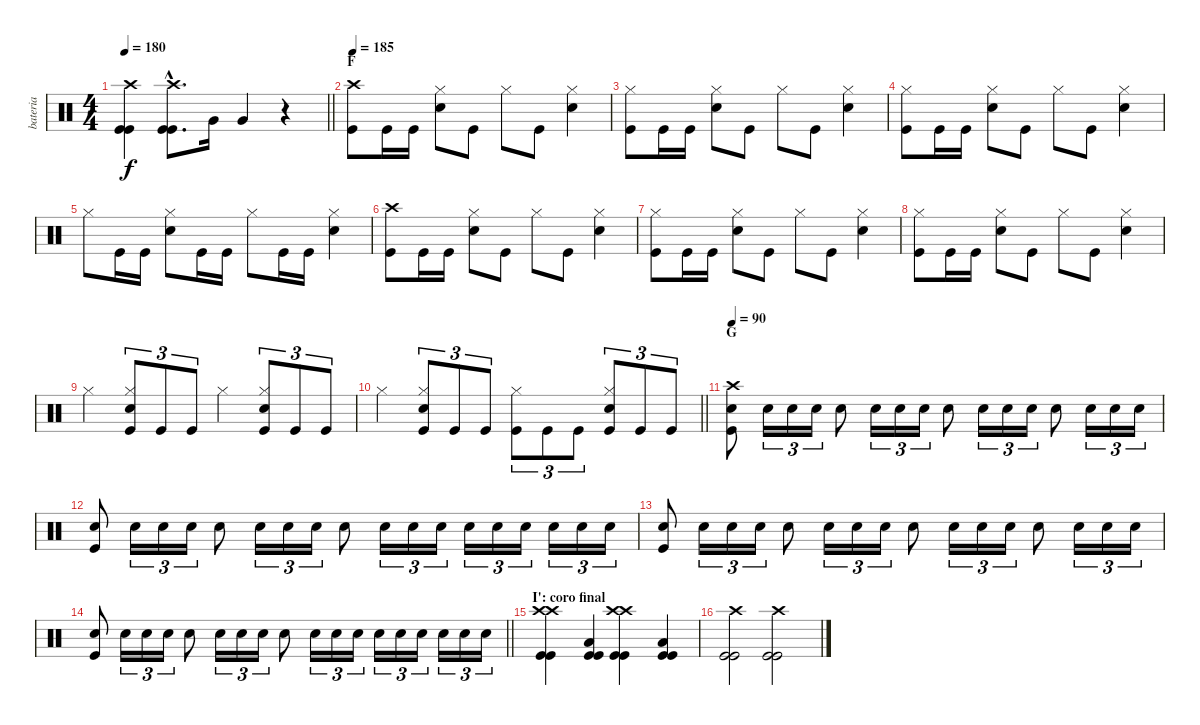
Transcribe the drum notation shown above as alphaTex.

\track ("bateria" "bateria") {instrument percussion}
\staff {score}
\articulation defaults
\ts (4 4)
\tempo 180
\clef neutral
\barLineRight lightlight
\ks c
("Crash high (hit)" "Kick (hit)" "Kick (hit)").4{dy f} ("Crash high (hit)"{hac} "Kick (hit)"{hac} "Kick (hit)"{hac}).8{d} "Very Low Tom (hit)".16 "Very Low Tom (hit)".4 r.4 |
\section ("" "F")
\tempo 185
("Crash high (hit)" "Kick (hit)").8 "Kick (hit)".16 "Kick (hit)".16 ("Hi-Hat (closed)" "Snare (hit) 2").8 "Kick (hit)".8 "Hi-Hat (closed)".8 "Kick (hit)".8 ("Hi-Hat (closed)" "Snare (hit) 2").4 |
("Hi-Hat (closed)" "Kick (hit)").8 "Kick (hit)".16 "Kick (hit)".16 ("Hi-Hat (closed)" "Snare (hit) 2").8 "Kick (hit)".8 "Hi-Hat (closed)".8 "Kick (hit)".8 ("Hi-Hat (closed)" "Snare (hit) 2").4 |
("Hi-Hat (closed)" "Kick (hit)").8 "Kick (hit)".16 "Kick (hit)".16 ("Hi-Hat (closed)" "Snare (hit) 2").8 "Kick (hit)".8 "Hi-Hat (closed)".8 "Kick (hit)".8 ("Hi-Hat (closed)" "Snare (hit) 2").4 |
"Hi-Hat (closed)".8 "Kick (hit)".16 "Kick (hit)".16 ("Hi-Hat (closed)" "Snare (hit) 2").8 "Kick (hit)".16 "Kick (hit)".16 "Hi-Hat (closed)".8 "Kick (hit)".16 "Kick (hit)".16 ("Hi-Hat (closed)" "Snare (hit) 2").4 |
("Crash high (hit)" "Kick (hit)").8 "Kick (hit)".16 "Kick (hit)".16 ("Hi-Hat (closed)" "Snare (hit) 2").8 "Kick (hit)".8 "Hi-Hat (closed)".8 "Kick (hit)".8 ("Hi-Hat (closed)" "Snare (hit) 2").4 |
("Hi-Hat (closed)" "Kick (hit)").8 "Kick (hit)".16 "Kick (hit)".16 ("Hi-Hat (closed)" "Snare (hit) 2").8 "Kick (hit)".8 "Hi-Hat (closed)".8 "Kick (hit)".8 ("Hi-Hat (closed)" "Snare (hit) 2").4 |
("Hi-Hat (closed)" "Kick (hit)").8 "Kick (hit)".16 "Kick (hit)".16 ("Hi-Hat (closed)" "Snare (hit) 2").8 "Kick (hit)".8 "Hi-Hat (closed)".8 "Kick (hit)".8 ("Hi-Hat (closed)" "Snare (hit) 2").4 |
"Hi-Hat (closed)".4 ("Hi-Hat (closed)" "Snare (hit) 2" "Kick (hit)").8{tu (3 2)} "Kick (hit)".8{tu (3 2)} "Kick (hit)".8{tu (3 2)} "Hi-Hat (closed)".4 ("Hi-Hat (closed)" "Snare (hit) 2" "Kick (hit)").8{tu (3 2)} "Kick (hit)".8{tu (3 2)} "Kick (hit)".8{tu (3 2)} |
\barLineRight lightlight "Hi-Hat (closed)".4
("Hi-Hat (closed)" "Snare (hit) 2" "Kick (hit)").8{tu (3 2)} "Kick (hit)".8{tu (3 2)} "Kick (hit)".8{tu (3 2)} ("Hi-Hat (closed)" "Kick (hit)").8{tu (3 2)} "Kick (hit)".8{tu (3 2)} "Kick (hit)".8{tu (3 2)} ("Hi-Hat (closed)" "Snare (hit) 2" "Kick (hit)").8{tu (3 2)} "Kick (hit)".8{tu (3 2)} "Kick (hit)".8{tu (3 2)} |
\section ("" "G")
\tempo 90
("Crash high (hit)" "Snare (hit) 2" "Kick (hit)").8 "Snare (hit) 2".16{tu (3 2)} "Snare (hit) 2".16{tu (3 2)} "Snare (hit) 2".16{tu (3 2)} "Snare (hit) 2".8 "Snare (hit) 2".16{tu (3 2)} "Snare (hit) 2".16{tu (3 2)} "Snare (hit) 2".16{tu (3 2)} "Snare (hit) 2".8 "Snare (hit) 2".16{tu (3 2)} "Snare (hit) 2".16{tu (3 2)} "Snare (hit) 2".16{tu (3 2)} "Snare (hit) 2".8 "Snare (hit) 2".16{tu (3 2)} "Snare (hit) 2".16{tu (3 2)} "Snare (hit) 2".16{tu (3 2)} |
("Snare (hit) 2" "Kick (hit)").8 "Snare (hit) 2".16{tu (3 2)} "Snare (hit) 2".16{tu (3 2)} "Snare (hit) 2".16{tu (3 2)} "Snare (hit) 2".8 "Snare (hit) 2".16{tu (3 2)} "Snare (hit) 2".16{tu (3 2)} "Snare (hit) 2".16{tu (3 2)} "Snare (hit) 2".8 "Snare (hit) 2".16{tu (3 2)} "Snare (hit) 2".16{tu (3 2)} "Snare (hit) 2".16{tu (3 2)} "Snare (hit) 2".16{tu (3 2)} "Snare (hit) 2".16{tu (3 2)} "Snare (hit) 2".16{tu (3 2)} "Snare (hit) 2".16{tu (3 2)} "Snare (hit) 2".16{tu (3 2)} "Snare (hit) 2".16{tu (3 2)} |
("Snare (hit) 2" "Kick (hit)").8 "Snare (hit) 2".16{tu (3 2)} "Snare (hit) 2".16{tu (3 2)} "Snare (hit) 2".16{tu (3 2)} "Snare (hit) 2".8 "Snare (hit) 2".16{tu (3 2)} "Snare (hit) 2".16{tu (3 2)} "Snare (hit) 2".16{tu (3 2)} "Snare (hit) 2".8 "Snare (hit) 2".16{tu (3 2)} "Snare (hit) 2".16{tu (3 2)} "Snare (hit) 2".16{tu (3 2)} "Snare (hit) 2".8 "Snare (hit) 2".16{tu (3 2)} "Snare (hit) 2".16{tu (3 2)} "Snare (hit) 2".16{tu (3 2)} |
\barLineRight lightlight
("Snare (hit) 2" "Kick (hit)").8 "Snare (hit) 2".16{tu (3 2)} "Snare (hit) 2".16{tu (3 2)} "Snare (hit) 2".16{tu (3 2)} "Snare (hit) 2".8 "Snare (hit) 2".16{tu (3 2)} "Snare (hit) 2".16{tu (3 2)} "Snare (hit) 2".16{tu (3 2)} "Snare (hit) 2".8 "Snare (hit) 2".16{tu (3 2)} "Snare (hit) 2".16{tu (3 2)} "Snare (hit) 2".16{tu (3 2)} "Snare (hit) 2".16{tu (3 2)} "Snare (hit) 2".16{tu (3 2)} "Snare (hit) 2".16{tu (3 2)} "Snare (hit) 2".16{tu (3 2)} "Snare (hit) 2".16{tu (3 2)} "Snare (hit) 2".16{tu (3 2)} |
\section ("" "I': coro final")
("Crash high (hit)" "Crash high (hit)" "Kick (hit)" "Kick (hit)").4 ("Low Tom (hit)" "Kick (hit)" "Kick (hit)").4 ("Crash high (hit)" "Crash high (hit)" "Kick (hit)" "Kick (hit)").4 ("Low Tom (hit)" "Kick (hit)" "Kick (hit)").4 |
("Crash high (hit)" "Kick (hit)" "Kick (hit)").2 ("Crash high (hit)" "Kick (hit)" "Kick (hit)").2
